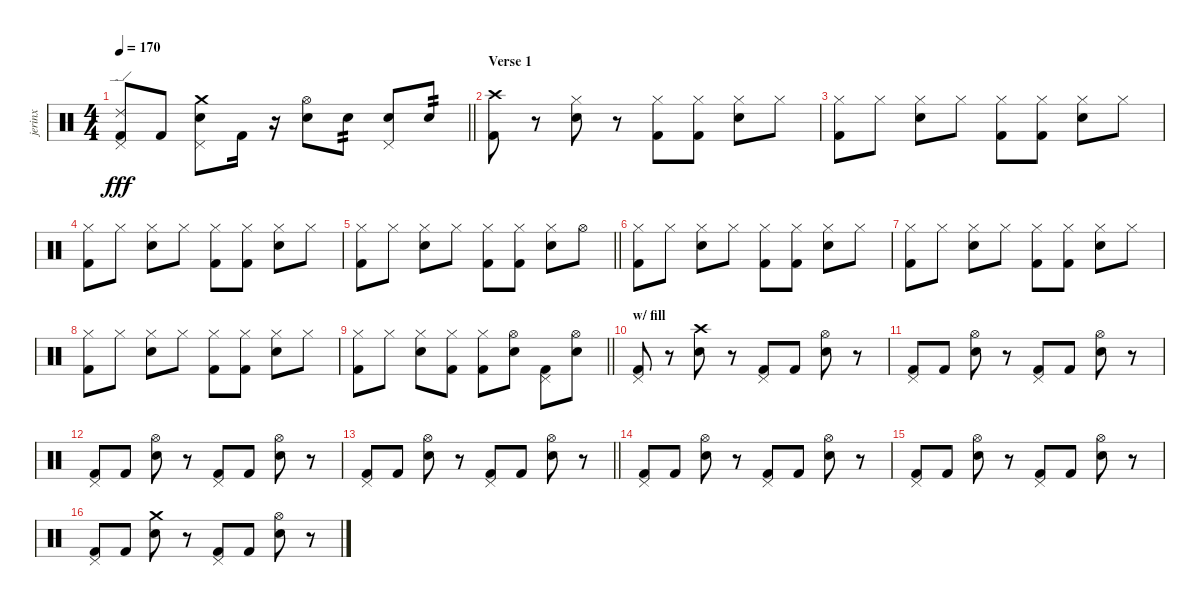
\track ("jerinx" "jerinx") {instrument percussion}
\staff {score}
\articulation defaults
\ts (4 4)
\tempo 170
\clef neutral
\barLineRight lightlight
\ks c
("Pedal Hi-Hat (hit)" "Kick (hit) 2" "Ride (edge) 2").8{dy fff} "Kick (hit) 2".8 ("Pedal Hi-Hat (hit)" "Snare (hit) 2" "Crash medium (hit)").8 "Kick (hit) 2".16 r.16 ("Hi-Hat (open)" "Snare (hit) 2").8 "Snare (hit) 2".8{tp 2} ("Pedal Hi-Hat (hit)" "Snare (hit) 2").8 "Snare (hit) 2".8{tp 2} |
\section ("" "Verse 1")
("Kick (hit) 2" "Crash high (hit)").8 r.8 ("Hi-Hat (closed)" "Snare (hit) 2").8 r.8 ("Hi-Hat (closed)" "Kick (hit) 2").8 ("Hi-Hat (closed)" "Kick (hit) 2").8 ("Hi-Hat (closed)" "Snare (hit) 2").8 "Hi-Hat (closed)".8 |
("Hi-Hat (closed)" "Kick (hit) 2").8 "Hi-Hat (closed)".8 ("Hi-Hat (closed)" "Snare (hit) 2").8 "Hi-Hat (closed)".8 ("Hi-Hat (closed)" "Kick (hit) 2").8 ("Hi-Hat (closed)" "Kick (hit) 2").8 ("Hi-Hat (closed)" "Snare (hit) 2").8 "Hi-Hat (closed)".8 |
("Hi-Hat (closed)" "Kick (hit) 2").8 "Hi-Hat (closed)".8 ("Hi-Hat (closed)" "Snare (hit) 2").8 "Hi-Hat (closed)".8 ("Hi-Hat (closed)" "Kick (hit) 2").8 ("Hi-Hat (closed)" "Kick (hit) 2").8 ("Hi-Hat (closed)" "Snare (hit) 2").8 "Hi-Hat (closed)".8 |
\barLineRight lightlight
("Hi-Hat (closed)" "Kick (hit) 2").8 "Hi-Hat (closed)".8 ("Hi-Hat (closed)" "Snare (hit) 2").8 "Hi-Hat (closed)".8 ("Hi-Hat (closed)" "Kick (hit) 2").8 ("Hi-Hat (closed)" "Kick (hit) 2").8 ("Hi-Hat (closed)" "Snare (hit) 2").8 "Hi-Hat (open)".8 |
("Hi-Hat (closed)" "Kick (hit) 2").8 "Hi-Hat (closed)".8 ("Hi-Hat (closed)" "Snare (hit) 2").8 "Hi-Hat (closed)".8 ("Hi-Hat (closed)" "Kick (hit) 2").8 ("Hi-Hat (closed)" "Kick (hit) 2").8 ("Hi-Hat (closed)" "Snare (hit) 2").8 "Hi-Hat (closed)".8 |
("Hi-Hat (closed)" "Kick (hit) 2").8 "Hi-Hat (closed)".8 ("Hi-Hat (closed)" "Snare (hit) 2").8 "Hi-Hat (closed)".8 ("Hi-Hat (closed)" "Kick (hit) 2").8 ("Hi-Hat (closed)" "Kick (hit) 2").8 ("Hi-Hat (closed)" "Snare (hit) 2").8 "Hi-Hat (closed)".8 |
("Hi-Hat (closed)" "Kick (hit) 2").8 "Hi-Hat (closed)".8 ("Hi-Hat (closed)" "Snare (hit) 2").8 "Hi-Hat (closed)".8 ("Hi-Hat (closed)" "Kick (hit) 2").8 ("Hi-Hat (closed)" "Kick (hit) 2").8 ("Hi-Hat (closed)" "Snare (hit) 2").8 "Hi-Hat (closed)".8 |
\barLineRight lightlight
("Hi-Hat (closed)" "Kick (hit) 2").8 "Hi-Hat (closed)".8 ("Hi-Hat (closed)" "Snare (hit) 2").8 ("Hi-Hat (closed)" "Kick (hit) 2").8 ("Hi-Hat (closed)" "Kick (hit) 2").8 ("Hi-Hat (open)" "Snare (hit) 2").8 ("Pedal Hi-Hat (hit)" "Kick (hit) 2").8 ("Hi-Hat (open)" "Snare (hit) 2").8 |
\section ("" "w/ fill")
("Pedal Hi-Hat (hit)" "Kick (hit) 2").8 r.8 ("Snare (hit) 2" "Crash high (hit)").8 r.8 ("Pedal Hi-Hat (hit)" "Kick (hit) 2").8 "Kick (hit) 2".8 ("Hi-Hat (open)" "Snare (hit) 2").8 r.8 |
("Pedal Hi-Hat (hit)" "Kick (hit) 2").8 "Kick (hit) 2".8 ("Hi-Hat (open)" "Snare (hit) 2").8 r.8 ("Pedal Hi-Hat (hit)" "Kick (hit) 2").8 "Kick (hit) 2".8 ("Hi-Hat (open)" "Snare (hit) 2").8 r.8 |
("Pedal Hi-Hat (hit)" "Kick (hit) 2").8 "Kick (hit) 2".8 ("Hi-Hat (open)" "Snare (hit) 2").8 r.8 ("Pedal Hi-Hat (hit)" "Kick (hit) 2").8 "Kick (hit) 2".8 ("Hi-Hat (open)" "Snare (hit) 2").8 r.8 |
\barLineRight lightlight
("Pedal Hi-Hat (hit)" "Kick (hit) 2").8 "Kick (hit) 2".8 ("Hi-Hat (open)" "Snare (hit) 2").8 r.8 ("Pedal Hi-Hat (hit)" "Kick (hit) 2").8 "Kick (hit) 2".8 ("Hi-Hat (open)" "Snare (hit) 2").8 r.8 |
("Pedal Hi-Hat (hit)" "Kick (hit) 2").8 "Kick (hit) 2".8 ("Hi-Hat (open)" "Snare (hit) 2").8 r.8 ("Pedal Hi-Hat (hit)" "Kick (hit) 2").8 "Kick (hit) 2".8 ("Hi-Hat (open)" "Snare (hit) 2").8 r.8 |
("Pedal Hi-Hat (hit)" "Kick (hit) 2").8 "Kick (hit) 2".8 ("Hi-Hat (open)" "Snare (hit) 2").8 r.8 ("Pedal Hi-Hat (hit)" "Kick (hit) 2").8 "Kick (hit) 2".8 ("Hi-Hat (open)" "Snare (hit) 2").8 r.8 |
("Pedal Hi-Hat (hit)" "Kick (hit) 2").8 "Kick (hit) 2".8 ("Snare (hit) 2" "Crash medium (hit)").8 r.8 ("Pedal Hi-Hat (hit)" "Kick (hit) 2").8 "Kick (hit) 2".8 ("Hi-Hat (open)" "Snare (hit) 2").8 r.8
